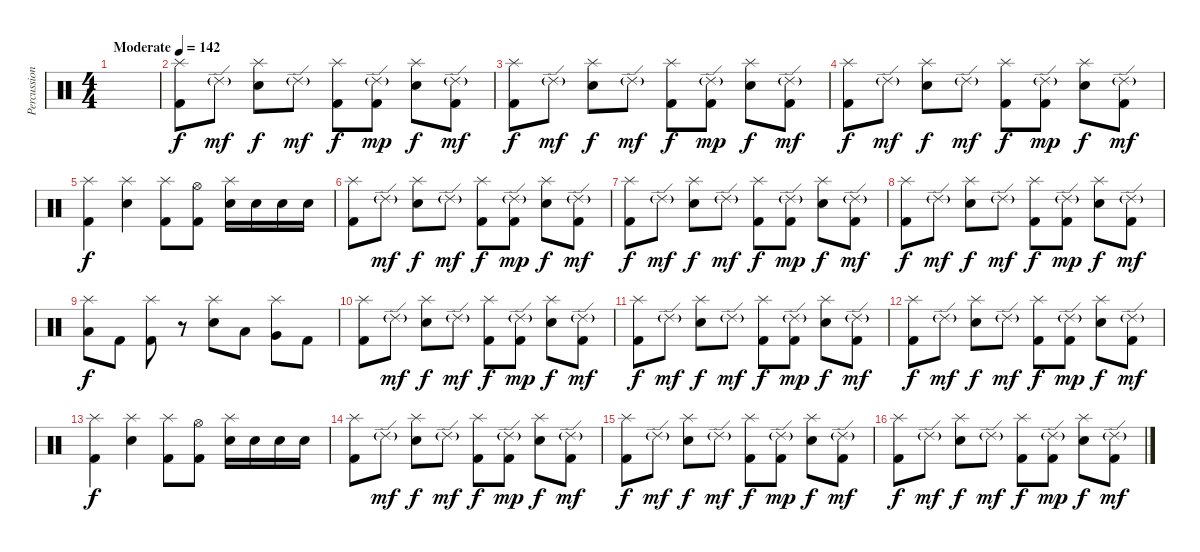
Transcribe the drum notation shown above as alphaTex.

\track ("Percussions" "Percussion") {instrument percussion}
\staff {score}
\articulation defaults
\ts (4 4)
\tempo (142 "Moderate")
\clef neutral
\ks c
|
("Splash (hit)" "Kick (hit) 2").8 "Ride (edge) 2"{g}.8{dy mf} ("Splash (hit)" "Electric Snare (hit)").8{dy f} "Ride (edge) 2"{g}.8{dy mf} ("Splash (hit)" "Kick (hit) 2").8{dy f} ("Ride (edge) 2"{g} "Kick (hit) 2").8{dy mp} ("Splash (hit)" "Electric Snare (hit)").8{dy f} ("Ride (edge) 2"{g} "Kick (hit) 2").8{dy mf} |
("Splash (hit)" "Kick (hit) 2").8{dy f} "Ride (edge) 2"{g}.8{dy mf} ("Splash (hit)" "Electric Snare (hit)").8{dy f} "Ride (edge) 2"{g}.8{dy mf} ("Splash (hit)" "Kick (hit) 2").8{dy f} ("Ride (edge) 2"{g} "Kick (hit) 2").8{dy mp} ("Splash (hit)" "Electric Snare (hit)").8{dy f} ("Ride (edge) 2"{g} "Kick (hit) 2").8{dy mf} |
("Splash (hit)" "Kick (hit) 2").8{dy f} "Ride (edge) 2"{g}.8{dy mf} ("Splash (hit)" "Electric Snare (hit)").8{dy f} "Ride (edge) 2"{g}.8{dy mf} ("Splash (hit)" "Kick (hit) 2").8{dy f} ("Ride (edge) 2"{g} "Kick (hit) 2").8{dy mp} ("Splash (hit)" "Electric Snare (hit)").8{dy f} ("Ride (edge) 2"{g} "Kick (hit) 2").8{dy mf} |
("Splash (hit)" "Kick (hit) 2").4{dy f} ("Splash (hit)" "Electric Snare (hit)").4 ("Splash (hit)" "Kick (hit) 2").8 ("Hi-Hat (open)" "Kick (hit) 2").8 ("Splash (hit)" "Electric Snare (hit)").16 "Electric Snare (hit)".16 "Electric Snare (hit)".16 "Electric Snare (hit)".16 |
("Splash (hit)" "Kick (hit) 2").8 "Ride (edge) 2"{g}.8{dy mf} ("Splash (hit)" "Electric Snare (hit)").8{dy f} "Ride (edge) 2"{g}.8{dy mf} ("Splash (hit)" "Kick (hit) 2").8{dy f} ("Ride (edge) 2"{g} "Kick (hit) 2").8{dy mp} ("Splash (hit)" "Electric Snare (hit)").8{dy f} ("Ride (edge) 2"{g} "Kick (hit) 2").8{dy mf} |
("Splash (hit)" "Kick (hit) 2").8{dy f} "Ride (edge) 2"{g}.8{dy mf} ("Splash (hit)" "Electric Snare (hit)").8{dy f} "Ride (edge) 2"{g}.8{dy mf} ("Splash (hit)" "Kick (hit) 2").8{dy f} ("Ride (edge) 2"{g} "Kick (hit) 2").8{dy mp} ("Splash (hit)" "Electric Snare (hit)").8{dy f} ("Ride (edge) 2"{g} "Kick (hit) 2").8{dy mf} |
("Splash (hit)" "Kick (hit) 2").8{dy f} "Ride (edge) 2"{g}.8{dy mf} ("Splash (hit)" "Electric Snare (hit)").8{dy f} "Ride (edge) 2"{g}.8{dy mf} ("Splash (hit)" "Kick (hit) 2").8{dy f} ("Ride (edge) 2"{g} "Kick (hit) 2").8{dy mp} ("Splash (hit)" "Electric Snare (hit)").8{dy f} ("Ride (edge) 2"{g} "Kick (hit) 2").8{dy mf} |
("Splash (hit)" "Low Tom (hit)").8{dy f} "Kick (hit) 2".8 ("Splash (hit)" "Kick (hit) 2").8 r.8 ("Splash (hit)" "Electric Snare (hit)").8 "Low Tom (hit)".8 ("Splash (hit)" "Very Low Tom (hit)").8 "Kick (hit) 2".8 |
("Splash (hit)" "Kick (hit) 2").8 "Ride (edge) 2"{g}.8{dy mf} ("Splash (hit)" "Electric Snare (hit)").8{dy f} "Ride (edge) 2"{g}.8{dy mf} ("Splash (hit)" "Kick (hit) 2").8{dy f} ("Ride (edge) 2"{g} "Kick (hit) 2").8{dy mp} ("Splash (hit)" "Electric Snare (hit)").8{dy f} ("Ride (edge) 2"{g} "Kick (hit) 2").8{dy mf} |
("Splash (hit)" "Kick (hit) 2").8{dy f} "Ride (edge) 2"{g}.8{dy mf} ("Splash (hit)" "Electric Snare (hit)").8{dy f} "Ride (edge) 2"{g}.8{dy mf} ("Splash (hit)" "Kick (hit) 2").8{dy f} ("Ride (edge) 2"{g} "Kick (hit) 2").8{dy mp} ("Splash (hit)" "Electric Snare (hit)").8{dy f} ("Ride (edge) 2"{g} "Kick (hit) 2").8{dy mf} |
("Splash (hit)" "Kick (hit) 2").8{dy f} "Ride (edge) 2"{g}.8{dy mf} ("Splash (hit)" "Electric Snare (hit)").8{dy f} "Ride (edge) 2"{g}.8{dy mf} ("Splash (hit)" "Kick (hit) 2").8{dy f} ("Ride (edge) 2"{g} "Kick (hit) 2").8{dy mp} ("Splash (hit)" "Electric Snare (hit)").8{dy f} ("Ride (edge) 2"{g} "Kick (hit) 2").8{dy mf} |
("Splash (hit)" "Kick (hit) 2").4{dy f} ("Splash (hit)" "Electric Snare (hit)").4 ("Splash (hit)" "Kick (hit) 2").8 ("Hi-Hat (open)" "Kick (hit) 2").8 ("Splash (hit)" "Electric Snare (hit)").16 "Electric Snare (hit)".16 "Electric Snare (hit)".16 "Electric Snare (hit)".16 |
("Splash (hit)" "Kick (hit) 2").8 "Ride (edge) 2"{g}.8{dy mf} ("Splash (hit)" "Electric Snare (hit)").8{dy f} "Ride (edge) 2"{g}.8{dy mf} ("Splash (hit)" "Kick (hit) 2").8{dy f} ("Ride (edge) 2"{g} "Kick (hit) 2").8{dy mp} ("Splash (hit)" "Electric Snare (hit)").8{dy f} ("Ride (edge) 2"{g} "Kick (hit) 2").8{dy mf} |
("Splash (hit)" "Kick (hit) 2").8{dy f} "Ride (edge) 2"{g}.8{dy mf} ("Splash (hit)" "Electric Snare (hit)").8{dy f} "Ride (edge) 2"{g}.8{dy mf} ("Splash (hit)" "Kick (hit) 2").8{dy f} ("Ride (edge) 2"{g} "Kick (hit) 2").8{dy mp} ("Splash (hit)" "Electric Snare (hit)").8{dy f} ("Ride (edge) 2"{g} "Kick (hit) 2").8{dy mf} |
("Splash (hit)" "Kick (hit) 2").8{dy f} "Ride (edge) 2"{g}.8{dy mf} ("Splash (hit)" "Electric Snare (hit)").8{dy f} "Ride (edge) 2"{g}.8{dy mf} ("Splash (hit)" "Kick (hit) 2").8{dy f} ("Ride (edge) 2"{g} "Kick (hit) 2").8{dy mp} ("Splash (hit)" "Electric Snare (hit)").8{dy f} ("Ride (edge) 2"{g} "Kick (hit) 2").8{dy mf}
